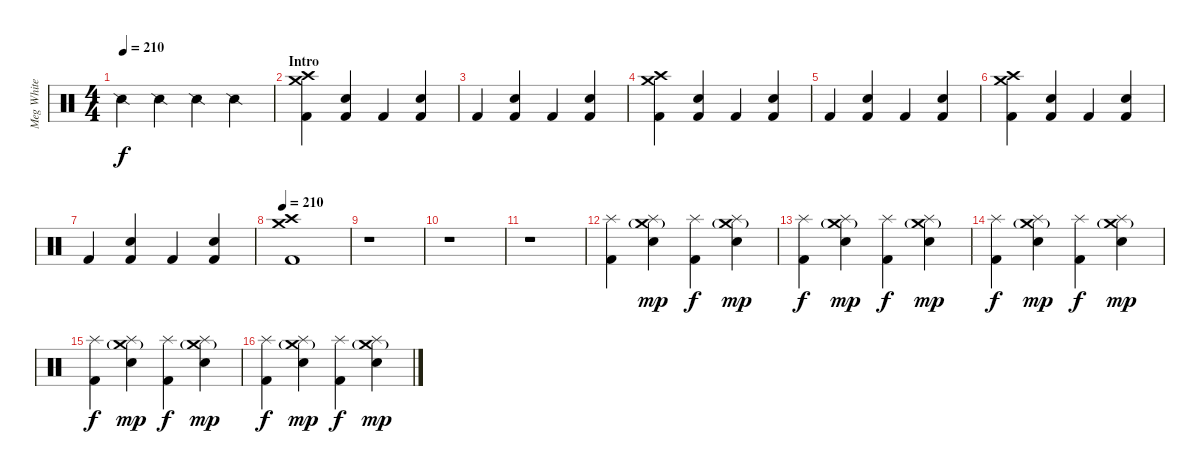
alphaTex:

\track ("Meg White (Drums)" "Meg White ") {instrument percussion}
\staff {score}
\articulation defaults
\ts (4 4)
\tempo 210
\tempo 180
\tempo 210
\clef neutral
\ks c "Snare (side stick) 2".4{dy f} "Snare (side stick) 2".4 "Snare (side stick) 2".4 "Snare (side stick) 2".4
|
\section ("" "Intro")
("Kick (hit) 2" "Crash high (hit)" "Crash medium (hit)").4 ("Kick (hit) 2" "Snare (hit) 2").4 "Kick (hit) 2".4 ("Kick (hit) 2" "Snare (hit) 2").4 |
"Kick (hit) 2".4 ("Kick (hit) 2" "Snare (hit) 2").4 "Kick (hit) 2".4 ("Kick (hit) 2" "Snare (hit) 2").4 |
("Kick (hit) 2" "Crash high (hit)" "Crash medium (hit)").4 ("Kick (hit) 2" "Snare (hit) 2").4 "Kick (hit) 2".4 ("Kick (hit) 2" "Snare (hit) 2").4 |
"Kick (hit) 2".4 ("Kick (hit) 2" "Snare (hit) 2").4 "Kick (hit) 2".4 ("Kick (hit) 2" "Snare (hit) 2").4 |
("Kick (hit) 2" "Crash high (hit)" "Crash medium (hit)").4 ("Kick (hit) 2" "Snare (hit) 2").4 "Kick (hit) 2".4 ("Kick (hit) 2" "Snare (hit) 2").4 |
"Kick (hit) 2".4 ("Kick (hit) 2" "Snare (hit) 2").4 "Kick (hit) 2".4 ("Kick (hit) 2" "Snare (hit) 2").4 |
\tempo 210
("Kick (hit) 2" "Crash high (hit)" "Crash medium (hit)").1 |
r.1 |
r.1 |
r.1 |
("Kick (hit) 2" "Splash (hit)").4 ("Electric Snare (hit)" "Splash (hit)" "Crash medium (hit)"{g}).4{dy mp} ("Kick (hit) 2" "Splash (hit)").4{dy f} ("Electric Snare (hit)" "Splash (hit)" "Crash medium (hit)"{g}).4{dy mp} |
("Kick (hit) 2" "Splash (hit)").4{dy f} ("Electric Snare (hit)" "Splash (hit)" "Crash medium (hit)"{g}).4{dy mp} ("Kick (hit) 2" "Splash (hit)").4{dy f} ("Electric Snare (hit)" "Splash (hit)" "Crash medium (hit)"{g}).4{dy mp} |
("Kick (hit) 2" "Splash (hit)").4{dy f} ("Electric Snare (hit)" "Splash (hit)" "Crash medium (hit)"{g}).4{dy mp} ("Kick (hit) 2" "Splash (hit)").4{dy f} ("Electric Snare (hit)" "Splash (hit)" "Crash medium (hit)"{g}).4{dy mp} |
("Kick (hit) 2" "Splash (hit)").4{dy f} ("Electric Snare (hit)" "Splash (hit)" "Crash medium (hit)"{g}).4{dy mp} ("Kick (hit) 2" "Splash (hit)").4{dy f} ("Electric Snare (hit)" "Splash (hit)" "Crash medium (hit)"{g}).4{dy mp} |
("Kick (hit) 2" "Splash (hit)").4{dy f} ("Electric Snare (hit)" "Splash (hit)" "Crash medium (hit)"{g}).4{dy mp} ("Kick (hit) 2" "Splash (hit)").4{dy f} ("Electric Snare (hit)" "Splash (hit)" "Crash medium (hit)"{g}).4{dy mp}
